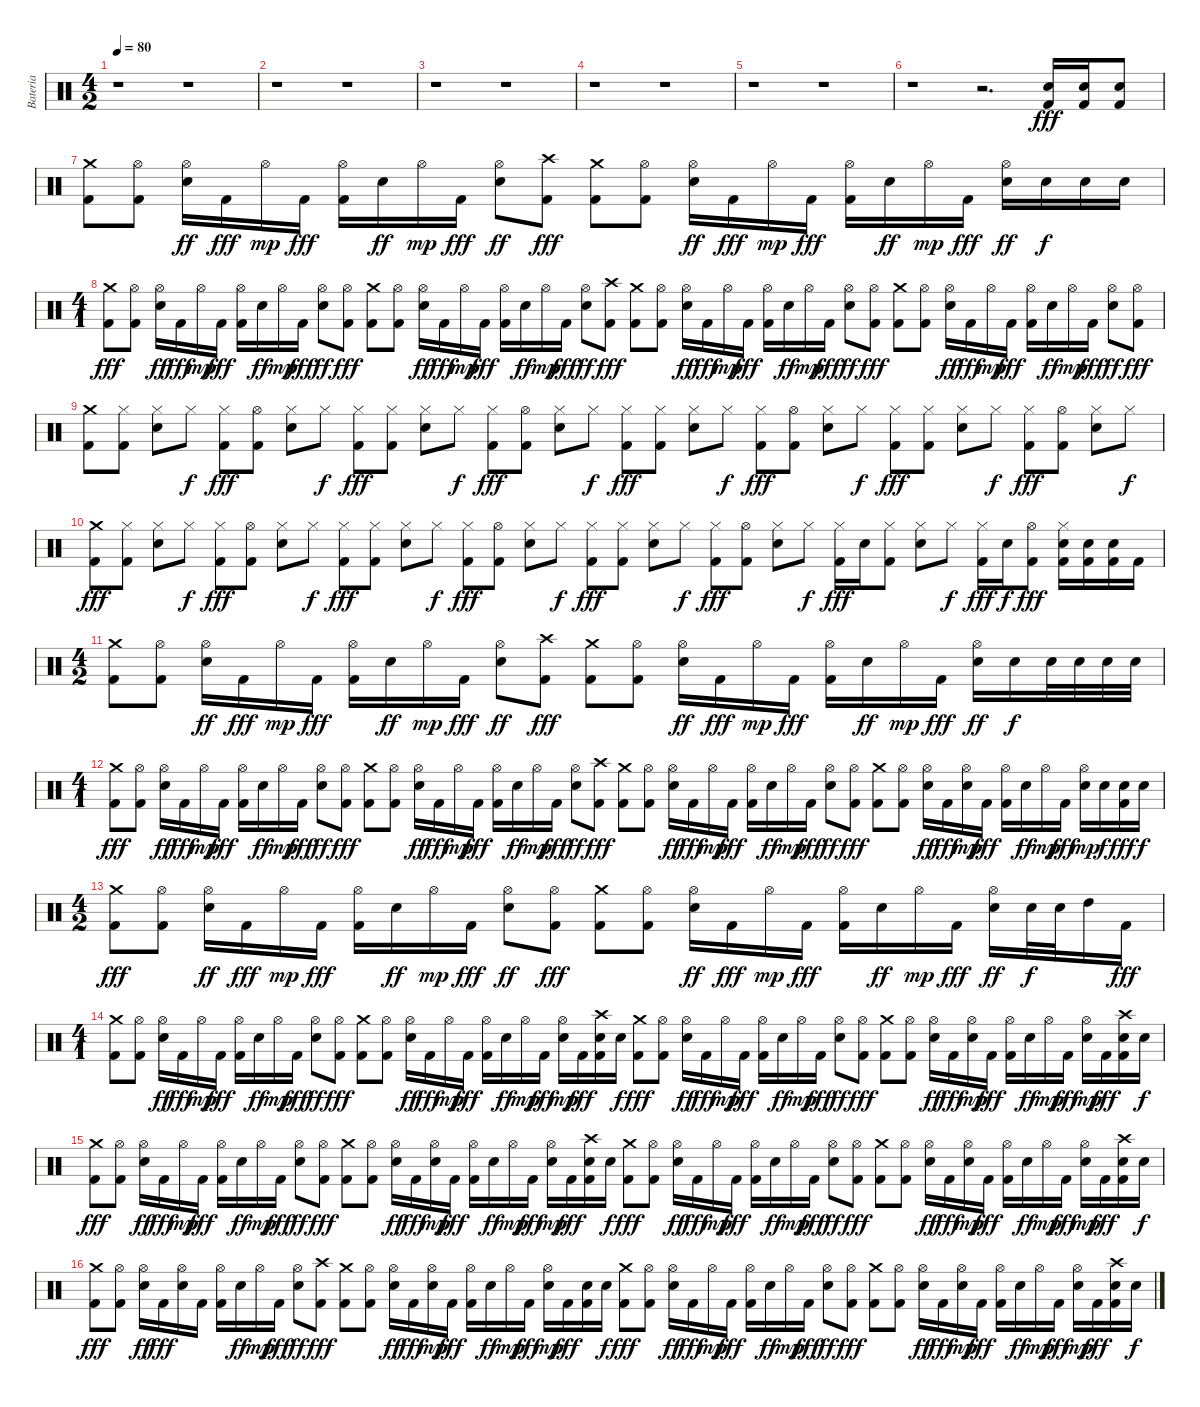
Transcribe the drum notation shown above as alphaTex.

\track ("Bateria" "Bateria") {instrument percussion}
\staff {score}
\articulation defaults
\ts (4 2)
\tempo 80
\clef neutral
\ks c
r.1{dy fff} r.1 |
r.1 r.1 |
r.1 r.1 |
r.1 r.1 |
r.1 r.1 |
r.1 r.2{d} ("Electric Snare (hit)" "Kick (hit) 2").16 ("Electric Snare (hit)" "Kick (hit) 2").16 ("Electric Snare (hit)" "Kick (hit) 2").8 |
("Crash medium (hit)" "Kick (hit) 2").8 ("Hi-Hat (open)" "Kick (hit) 2").8 ("Hi-Hat (open)" "Electric Snare (hit)").16{dy ff} "Kick (hit) 2".16{dy fff} "Hi-Hat (open)".16{dy mp} "Kick (hit) 2".16{dy fff} ("Hi-Hat (open)" "Kick (hit) 2").16 "Electric Snare (hit)".16{dy ff} "Hi-Hat (open)".16{dy mp} "Kick (hit) 2".16{dy fff} ("Hi-Hat (open)" "Electric Snare (hit)").8{dy ff} ("Crash high (hit)" "Kick (hit) 2").8{dy fff} ("Crash medium (hit)" "Kick (hit) 2").8 ("Hi-Hat (open)" "Kick (hit) 2").8 ("Hi-Hat (open)" "Electric Snare (hit)").16{dy ff} "Kick (hit) 2".16{dy fff} "Hi-Hat (open)".16{dy mp} "Kick (hit) 2".16{dy fff} ("Hi-Hat (open)" "Kick (hit) 2").16 "Electric Snare (hit)".16{dy ff} "Hi-Hat (open)".16{dy mp} "Kick (hit) 2".16{dy fff} ("Hi-Hat (open)" "Electric Snare (hit)").16{dy ff} "Electric Snare (hit)".16{dy f} "Electric Snare (hit)".16 "Electric Snare (hit)".16 |
\ts (4 1)
("Crash medium (hit)" "Kick (hit) 2").8{dy fff} ("Hi-Hat (open)" "Kick (hit) 2").8 ("Hi-Hat (open)" "Electric Snare (hit)").16{dy ff} "Kick (hit) 2".16{dy fff} "Hi-Hat (open)".16{dy mp} "Kick (hit) 2".16{dy fff} ("Hi-Hat (open)" "Kick (hit) 2").16 "Electric Snare (hit)".16{dy ff} "Hi-Hat (open)".16{dy mp} "Kick (hit) 2".16{dy fff} ("Hi-Hat (open)" "Electric Snare (hit)").8{dy ff} ("Hi-Hat (open)" "Kick (hit) 2").8{dy fff} ("Crash medium (hit)" "Kick (hit) 2").8 ("Hi-Hat (open)" "Kick (hit) 2").8 ("Hi-Hat (open)" "Electric Snare (hit)").16{dy ff} "Kick (hit) 2".16{dy fff} "Hi-Hat (open)".16{dy mp} "Kick (hit) 2".16{dy fff} ("Hi-Hat (open)" "Kick (hit) 2").16 "Electric Snare (hit)".16{dy ff} "Hi-Hat (open)".16{dy mp} "Kick (hit) 2".16{dy fff} ("Hi-Hat (open)" "Electric Snare (hit)").8{dy ff} ("Crash high (hit)" "Kick (hit) 2").8{dy fff} ("Crash medium (hit)" "Kick (hit) 2").8 ("Hi-Hat (open)" "Kick (hit) 2").8 ("Hi-Hat (open)" "Electric Snare (hit)").16{dy ff} "Kick (hit) 2".16{dy fff} "Hi-Hat (open)".16{dy mp} "Kick (hit) 2".16{dy fff} ("Hi-Hat (open)" "Kick (hit) 2").16 "Electric Snare (hit)".16{dy ff} "Hi-Hat (open)".16{dy mp} "Kick (hit) 2".16{dy fff} ("Hi-Hat (open)" "Electric Snare (hit)").8{dy ff} ("Hi-Hat (open)" "Kick (hit) 2").8{dy fff} ("Crash medium (hit)" "Kick (hit) 2").8 ("Hi-Hat (open)" "Kick (hit) 2").8 ("Hi-Hat (open)" "Electric Snare (hit)").16{dy ff} "Kick (hit) 2".16{dy fff} "Hi-Hat (open)".16{dy mp} "Kick (hit) 2".16{dy fff} ("Hi-Hat (open)" "Kick (hit) 2").16 "Electric Snare (hit)".16{dy ff} "Hi-Hat (open)".16{dy mp} "Kick (hit) 2".16{dy fff} ("Hi-Hat (open)" "Electric Snare (hit)").8{dy ff} ("Hi-Hat (open)" "Kick (hit) 2").8{dy fff} |
("Crash medium (hit)" "Kick (hit) 2").8 ("Hi-Hat (closed)" "Kick (hit) 2").8 ("Hi-Hat (closed)" "Electric Snare (hit)").8 "Hi-Hat (closed)".8{dy f} ("Hi-Hat (closed)" "Kick (hit) 2").8{dy fff} ("Hi-Hat (open)" "Kick (hit) 2").8 ("Hi-Hat (closed)" "Electric Snare (hit)").8 "Hi-Hat (closed)".8{dy f} ("Hi-Hat (closed)" "Kick (hit) 2").8{dy fff} ("Hi-Hat (closed)" "Kick (hit) 2").8 ("Hi-Hat (closed)" "Electric Snare (hit)").8 "Hi-Hat (closed)".8{dy f} ("Hi-Hat (closed)" "Kick (hit) 2").8{dy fff} ("Hi-Hat (open)" "Kick (hit) 2").8 ("Hi-Hat (closed)" "Electric Snare (hit)").8 "Hi-Hat (closed)".8{dy f} ("Hi-Hat (closed)" "Kick (hit) 2").8{dy fff} ("Hi-Hat (closed)" "Kick (hit) 2").8 ("Hi-Hat (closed)" "Electric Snare (hit)").8 "Hi-Hat (closed)".8{dy f} ("Hi-Hat (closed)" "Kick (hit) 2").8{dy fff} ("Hi-Hat (open)" "Kick (hit) 2").8 ("Hi-Hat (closed)" "Electric Snare (hit)").8 "Hi-Hat (closed)".8{dy f} ("Hi-Hat (closed)" "Kick (hit) 2").8{dy fff} ("Hi-Hat (closed)" "Kick (hit) 2").8 ("Hi-Hat (closed)" "Electric Snare (hit)").8 "Hi-Hat (closed)".8{dy f} ("Hi-Hat (closed)" "Kick (hit) 2").8{dy fff} ("Hi-Hat (open)" "Kick (hit) 2").8 ("Hi-Hat (closed)" "Electric Snare (hit)").8 "Hi-Hat (closed)".8{dy f} |
("Crash medium (hit)" "Kick (hit) 2").8{dy fff} ("Hi-Hat (closed)" "Kick (hit) 2").8 ("Hi-Hat (closed)" "Electric Snare (hit)").8 "Hi-Hat (closed)".8{dy f} ("Hi-Hat (closed)" "Kick (hit) 2").8{dy fff} ("Hi-Hat (open)" "Kick (hit) 2").8 ("Hi-Hat (closed)" "Electric Snare (hit)").8 "Hi-Hat (closed)".8{dy f} ("Hi-Hat (closed)" "Kick (hit) 2").8{dy fff} ("Hi-Hat (closed)" "Kick (hit) 2").8 ("Hi-Hat (closed)" "Electric Snare (hit)").8 "Hi-Hat (closed)".8{dy f} ("Hi-Hat (closed)" "Kick (hit) 2").8{dy fff} ("Hi-Hat (open)" "Kick (hit) 2").8 ("Hi-Hat (closed)" "Electric Snare (hit)").8 "Hi-Hat (closed)".8{dy f} ("Hi-Hat (closed)" "Kick (hit) 2").8{dy fff} ("Hi-Hat (closed)" "Kick (hit) 2").8 ("Hi-Hat (closed)" "Electric Snare (hit)").8 "Hi-Hat (closed)".8{dy f} ("Hi-Hat (closed)" "Kick (hit) 2").8{dy fff} ("Hi-Hat (open)" "Kick (hit) 2").8 ("Hi-Hat (closed)" "Electric Snare (hit)").8 "Hi-Hat (closed)".8{dy f} ("Hi-Hat (closed)" "Kick (hit) 2").16{dy fff} "Electric Snare (hit)".16 ("Hi-Hat (closed)" "Kick (hit) 2").8 ("Hi-Hat (closed)" "Electric Snare (hit)").8 "Hi-Hat (closed)".8{dy f} ("Hi-Hat (closed)" "Kick (hit) 2").16{dy fff} "Electric Snare (hit)".16{dy f} ("Hi-Hat (open)" "Kick (hit) 2").8{dy fff} ("Hi-Hat (closed)" "Electric Snare (hit)" "Kick (hit) 2").16 ("Electric Snare (hit)" "Kick (hit) 2").16 ("Electric Snare (hit)" "Kick (hit) 2").16 "Kick (hit) 2".16 |
\ts (4 2)
("Crash medium (hit)" "Kick (hit) 2").8 ("Hi-Hat (open)" "Kick (hit) 2").8 ("Hi-Hat (open)" "Electric Snare (hit)").16{dy ff} "Kick (hit) 2".16{dy fff} "Hi-Hat (open)".16{dy mp} "Kick (hit) 2".16{dy fff} ("Hi-Hat (open)" "Kick (hit) 2").16 "Electric Snare (hit)".16{dy ff} "Hi-Hat (open)".16{dy mp} "Kick (hit) 2".16{dy fff} ("Hi-Hat (open)" "Electric Snare (hit)").8{dy ff} ("Crash high (hit)" "Kick (hit) 2").8{dy fff} ("Crash medium (hit)" "Kick (hit) 2").8 ("Hi-Hat (open)" "Kick (hit) 2").8 ("Hi-Hat (open)" "Electric Snare (hit)").16{dy ff} "Kick (hit) 2".16{dy fff} "Hi-Hat (open)".16{dy mp} "Kick (hit) 2".16{dy fff} ("Hi-Hat (open)" "Kick (hit) 2").16 "Electric Snare (hit)".16{dy ff} "Hi-Hat (open)".16{dy mp} "Kick (hit) 2".16{dy fff} ("Hi-Hat (open)" "Electric Snare (hit)").16{dy ff} "Electric Snare (hit)".16{dy f} "Electric Snare (hit)".32 "Electric Snare (hit)".32 "Electric Snare (hit)".32 "Electric Snare (hit)".32 |
\ts (4 1)
("Crash medium (hit)" "Kick (hit) 2").8{dy fff} ("Hi-Hat (open)" "Kick (hit) 2").8 ("Hi-Hat (open)" "Electric Snare (hit)").16{dy ff} "Kick (hit) 2".16{dy fff} "Hi-Hat (open)".16{dy mp} "Kick (hit) 2".16{dy fff} ("Hi-Hat (open)" "Kick (hit) 2").16 "Electric Snare (hit)".16{dy ff} "Hi-Hat (open)".16{dy mp} "Kick (hit) 2".16{dy fff} ("Hi-Hat (open)" "Electric Snare (hit)").8{dy ff} ("Hi-Hat (open)" "Kick (hit) 2").8{dy fff} ("Crash medium (hit)" "Kick (hit) 2").8 ("Hi-Hat (open)" "Kick (hit) 2").8 ("Hi-Hat (open)" "Electric Snare (hit)").16{dy ff} "Kick (hit) 2".16{dy fff} "Hi-Hat (open)".16{dy mp} "Kick (hit) 2".16{dy fff} ("Hi-Hat (open)" "Kick (hit) 2").16 "Electric Snare (hit)".16{dy ff} "Hi-Hat (open)".16{dy mp} "Kick (hit) 2".16{dy fff} ("Hi-Hat (open)" "Electric Snare (hit)").8{dy ff} ("Crash high (hit)" "Kick (hit) 2").8{dy fff} ("Crash medium (hit)" "Kick (hit) 2").8 ("Hi-Hat (open)" "Kick (hit) 2").8 ("Hi-Hat (open)" "Electric Snare (hit)").16{dy ff} "Kick (hit) 2".16{dy fff} "Hi-Hat (open)".16{dy mp} "Kick (hit) 2".16{dy fff} ("Hi-Hat (open)" "Kick (hit) 2").16 "Electric Snare (hit)".16{dy ff} "Hi-Hat (open)".16{dy mp} "Kick (hit) 2".16{dy fff} ("Hi-Hat (open)" "Electric Snare (hit)").8{dy ff} ("Hi-Hat (open)" "Kick (hit) 2").8{dy fff} ("Crash medium (hit)" "Kick (hit) 2").8 ("Hi-Hat (open)" "Kick (hit) 2").8 ("Hi-Hat (open)" "Electric Snare (hit)").16{dy ff} "Kick (hit) 2".16{dy fff} ("Hi-Hat (open)" "Electric Snare (hit)").16{dy mp} "Kick (hit) 2".16{dy fff} ("Hi-Hat (open)" "Kick (hit) 2").16 "Electric Snare (hit)".16{dy ff} "Hi-Hat (open)".16{dy mp} "Kick (hit) 2".16{dy fff} ("Hi-Hat (open)" "Electric Snare (hit)").16{dy mp} "Electric Snare (hit)".16{dy f} ("Electric Snare (hit)" "Kick (hit) 2").16{dy fff} "Electric Snare (hit)".16{dy f} |
\ts (4 2)
("Crash medium (hit)" "Kick (hit) 2").8{dy fff} ("Hi-Hat (open)" "Kick (hit) 2").8 ("Hi-Hat (open)" "Electric Snare (hit)").16{dy ff} "Kick (hit) 2".16{dy fff} "Hi-Hat (open)".16{dy mp} "Kick (hit) 2".16{dy fff} ("Hi-Hat (open)" "Kick (hit) 2").16 "Electric Snare (hit)".16{dy ff} "Hi-Hat (open)".16{dy mp} "Kick (hit) 2".16{dy fff} ("Hi-Hat (open)" "Electric Snare (hit)").8{dy ff} ("Hi-Hat (open)" "Kick (hit) 2").8{dy fff} ("Crash medium (hit)" "Kick (hit) 2").8 ("Hi-Hat (open)" "Kick (hit) 2").8 ("Hi-Hat (open)" "Electric Snare (hit)").16{dy ff} "Kick (hit) 2".16{dy fff} "Hi-Hat (open)".16{dy mp} "Kick (hit) 2".16{dy fff} ("Hi-Hat (open)" "Kick (hit) 2").16 "Electric Snare (hit)".16{dy ff} "Hi-Hat (open)".16{dy mp} "Kick (hit) 2".16{dy fff} ("Hi-Hat (open)" "Electric Snare (hit)").16{dy ff} "Electric Snare (hit)".32{dy f} "Electric Snare (hit)".32 "High Tom (hit)".16 "Kick (hit) 2".16{dy fff} |
\ts (4 1)
("Crash medium (hit)" "Kick (hit) 2").8 ("Hi-Hat (open)" "Kick (hit) 2").8 ("Hi-Hat (open)" "Electric Snare (hit)").16{dy ff} "Kick (hit) 2".16{dy fff} "Hi-Hat (open)".16{dy mp} "Kick (hit) 2".16{dy fff} ("Hi-Hat (open)" "Kick (hit) 2").16 "Electric Snare (hit)".16{dy ff} "Hi-Hat (open)".16{dy mp} "Kick (hit) 2".16{dy fff} ("Hi-Hat (open)" "Electric Snare (hit)").8{dy ff} ("Hi-Hat (open)" "Kick (hit) 2").8{dy fff} ("Crash medium (hit)" "Kick (hit) 2").8 ("Hi-Hat (open)" "Kick (hit) 2").8 ("Hi-Hat (open)" "Electric Snare (hit)").16{dy ff} "Kick (hit) 2".16{dy fff} "Hi-Hat (open)".16{dy mp} "Kick (hit) 2".16{dy fff} ("Hi-Hat (open)" "Kick (hit) 2").16 "Electric Snare (hit)".16{dy ff} "Hi-Hat (open)".16{dy mp} "Kick (hit) 2".16{dy fff} ("Hi-Hat (open)" "Electric Snare (hit)").16{dy mp} "Kick (hit) 2".16{dy fff} ("Crash high (hit)" "Electric Snare (hit)" "Kick (hit) 2").16 "Electric Snare (hit)".16{dy f} ("Crash medium (hit)" "Kick (hit) 2").8{dy fff} ("Hi-Hat (open)" "Kick (hit) 2").8 ("Hi-Hat (open)" "Electric Snare (hit)").16{dy ff} "Kick (hit) 2".16{dy fff} "Hi-Hat (open)".16{dy mp} "Kick (hit) 2".16{dy fff} ("Hi-Hat (open)" "Kick (hit) 2").16 "Electric Snare (hit)".16{dy ff} "Hi-Hat (open)".16{dy mp} "Kick (hit) 2".16{dy fff} ("Hi-Hat (open)" "Electric Snare (hit)").8{dy ff} ("Hi-Hat (open)" "Kick (hit) 2").8{dy fff} ("Crash medium (hit)" "Kick (hit) 2").8 ("Hi-Hat (open)" "Kick (hit) 2").8 ("Hi-Hat (open)" "Electric Snare (hit)").16{dy ff} "Kick (hit) 2".16{dy fff} ("Hi-Hat (open)" "Electric Snare (hit)").16{dy mp} "Kick (hit) 2".16{dy fff} ("Hi-Hat (open)" "Kick (hit) 2").16 "Electric Snare (hit)".16{dy ff} "Hi-Hat (open)".16{dy mp} "Kick (hit) 2".16{dy fff} ("Hi-Hat (open)" "Electric Snare (hit)").16{dy mp} "Kick (hit) 2".16{dy fff} ("Crash high (hit)" "Electric Snare (hit)" "Kick (hit) 2").16 "Electric Snare (hit)".16{dy f} |
("Crash medium (hit)" "Kick (hit) 2").8{dy fff} ("Hi-Hat (open)" "Kick (hit) 2").8 ("Hi-Hat (open)" "Electric Snare (hit)").16{dy ff} "Kick (hit) 2".16{dy fff} "Hi-Hat (open)".16{dy mp} "Kick (hit) 2".16{dy fff} ("Hi-Hat (open)" "Kick (hit) 2").16 "Electric Snare (hit)".16{dy ff} "Hi-Hat (open)".16{dy mp} "Kick (hit) 2".16{dy fff} ("Hi-Hat (open)" "Electric Snare (hit)").8{dy ff} ("Hi-Hat (open)" "Kick (hit) 2").8{dy fff} ("Crash medium (hit)" "Kick (hit) 2").8 ("Hi-Hat (open)" "Kick (hit) 2").8 ("Hi-Hat (open)" "Electric Snare (hit)").16{dy ff} "Kick (hit) 2".16{dy fff} ("Hi-Hat (open)" "Electric Snare (hit)").16{dy mp} "Kick (hit) 2".16{dy fff} ("Hi-Hat (open)" "Kick (hit) 2").16 "Electric Snare (hit)".16{dy ff} "Hi-Hat (open)".16{dy mp} "Kick (hit) 2".16{dy fff} ("Hi-Hat (open)" "Electric Snare (hit)").16{dy mp} "Kick (hit) 2".16{dy fff} ("Crash high (hit)" "Electric Snare (hit)" "Kick (hit) 2").16 "Electric Snare (hit)".16{dy f} ("Crash medium (hit)" "Kick (hit) 2").8{dy fff} ("Hi-Hat (open)" "Kick (hit) 2").8 ("Hi-Hat (open)" "Electric Snare (hit)").16{dy ff} "Kick (hit) 2".16{dy fff} "Hi-Hat (open)".16{dy mp} "Kick (hit) 2".16{dy fff} ("Hi-Hat (open)" "Kick (hit) 2").16 "Electric Snare (hit)".16{dy ff} "Hi-Hat (open)".16{dy mp} "Kick (hit) 2".16{dy fff} ("Hi-Hat (open)" "Electric Snare (hit)").8{dy ff} ("Hi-Hat (open)" "Kick (hit) 2").8{dy fff} ("Crash medium (hit)" "Kick (hit) 2").8 ("Hi-Hat (open)" "Kick (hit) 2").8 ("Hi-Hat (open)" "Electric Snare (hit)").16{dy ff} "Kick (hit) 2".16{dy fff} ("Hi-Hat (open)" "Electric Snare (hit)").16{dy mp} "Kick (hit) 2".16{dy fff} ("Hi-Hat (open)" "Kick (hit) 2").16 "Electric Snare (hit)".16{dy ff} "Hi-Hat (open)".16{dy mp} "Kick (hit) 2".16{dy fff} ("Hi-Hat (open)" "Electric Snare (hit)").16{dy mp} "Kick (hit) 2".16{dy fff} ("Crash high (hit)" "Electric Snare (hit)" "Kick (hit) 2").16 "Electric Snare (hit)".16{dy f} |
("Crash medium (hit)" "Kick (hit) 2").8{dy fff} ("Hi-Hat (open)" "Kick (hit) 2").8 ("Hi-Hat (open)" "Electric Snare (hit)").16{dy ff} "Kick (hit) 2".16{dy fff} ("Hi-Hat (open)" "Electric Snare (hit)").16 "Kick (hit) 2".16 ("Hi-Hat (open)" "Kick (hit) 2").16 "Electric Snare (hit)".16{dy ff} "Hi-Hat (open)".16{dy mp} "Kick (hit) 2".16{dy fff} ("Hi-Hat (open)" "Electric Snare (hit)").8{dy ff} ("Crash high (hit)" "Kick (hit) 2").8{dy fff} ("Crash medium (hit)" "Kick (hit) 2").8 ("Hi-Hat (open)" "Kick (hit) 2").8 ("Hi-Hat (open)" "Electric Snare (hit)").16{dy ff} "Kick (hit) 2".16{dy fff} ("Hi-Hat (open)" "Electric Snare (hit)").16{dy mp} "Kick (hit) 2".16{dy fff} ("Hi-Hat (open)" "Kick (hit) 2").16 "Electric Snare (hit)".16{dy ff} "Hi-Hat (open)".16{dy mp} "Kick (hit) 2".16{dy fff} ("Hi-Hat (open)" "Electric Snare (hit)").16{dy mp} "Kick (hit) 2".16{dy fff} ("Electric Snare (hit)" "Kick (hit) 2").16 "Electric Snare (hit)".16{dy f} ("Crash medium (hit)" "Kick (hit) 2").8{dy fff} ("Hi-Hat (open)" "Kick (hit) 2").8 ("Hi-Hat (open)" "Electric Snare (hit)").16{dy ff} "Kick (hit) 2".16{dy fff} "Hi-Hat (open)".16{dy mp} "Kick (hit) 2".16{dy fff} ("Hi-Hat (open)" "Kick (hit) 2").16 "Electric Snare (hit)".16{dy ff} "Hi-Hat (open)".16{dy mp} "Kick (hit) 2".16{dy fff} ("Hi-Hat (open)" "Electric Snare (hit)").8{dy ff} ("Hi-Hat (open)" "Kick (hit) 2").8{dy fff} ("Crash medium (hit)" "Kick (hit) 2").8 ("Hi-Hat (open)" "Kick (hit) 2").8 ("Hi-Hat (open)" "Electric Snare (hit)").16{dy ff} "Kick (hit) 2".16{dy fff} ("Hi-Hat (open)" "Electric Snare (hit)").16{dy mp} "Kick (hit) 2".16{dy fff} ("Hi-Hat (open)" "Kick (hit) 2").16 "Electric Snare (hit)".16{dy ff} "Hi-Hat (open)".16{dy mp} "Kick (hit) 2".16{dy fff} ("Hi-Hat (open)" "Electric Snare (hit)").16{dy mp} "Kick (hit) 2".16{dy fff} ("Crash high (hit)" "Electric Snare (hit)" "Kick (hit) 2").16 "Electric Snare (hit)".16{dy f}
